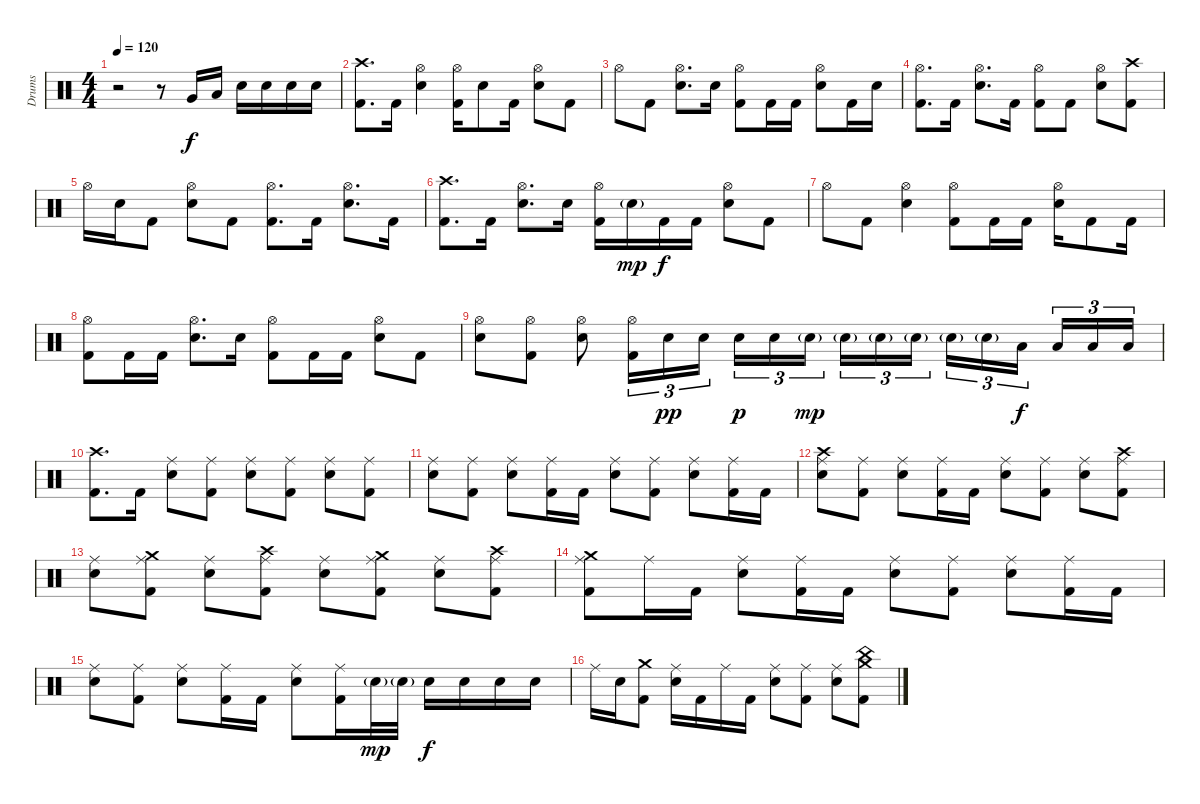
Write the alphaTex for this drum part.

\track ("Drums" "Drums") {instrument percussion}
\staff {score}
\articulation defaults
\ts (4 4)
\tempo 120
\clef neutral
\ks c
r.2{dy f} r.8 "Very Low Tom (hit)".16 "Low Floor Tom (hit)".16 "Electric Snare (hit)".16 "Electric Snare (hit)".16 "Electric Snare (hit)".16 "Electric Snare (hit)".16 |
("Crash high (hit)" "Kick (hit) 2").8{d} "Kick (hit) 2".16 ("Hi-Hat (open)" "Electric Snare (hit)").4 ("Hi-Hat (open)" "Kick (hit) 2").16 "Electric Snare (hit)".8 "Kick (hit) 2".16 ("Hi-Hat (open)" "Electric Snare (hit)").8 "Kick (hit) 2".8 |
"Hi-Hat (open)".8 "Kick (hit) 2".8 ("Hi-Hat (open)" "Electric Snare (hit)").8{d} "Electric Snare (hit)".16 ("Hi-Hat (open)" "Kick (hit) 2").8 "Kick (hit) 2".16 "Kick (hit) 2".16 ("Hi-Hat (open)" "Electric Snare (hit)").8 "Kick (hit) 2".16 "Electric Snare (hit)".16 |
("Hi-Hat (open)" "Kick (hit) 2").8{d} "Kick (hit) 2".16 ("Hi-Hat (open)" "Electric Snare (hit)").8{d} "Kick (hit) 2".16 ("Hi-Hat (open)" "Kick (hit) 2").8 "Kick (hit) 2".8 ("Hi-Hat (open)" "Electric Snare (hit)").8 ("Crash high (hit)" "Kick (hit) 2").8 |
"Hi-Hat (open)".16 "Electric Snare (hit)".16 "Kick (hit) 2".8 ("Hi-Hat (open)" "Electric Snare (hit)").8 "Kick (hit) 2".8 ("Hi-Hat (open)" "Kick (hit) 2").8{d} "Kick (hit) 2".16 ("Hi-Hat (open)" "Electric Snare (hit)").8{d} "Kick (hit) 2".16 |
("Crash high (hit)" "Kick (hit) 2").8{d} "Kick (hit) 2".16 ("Hi-Hat (open)" "Electric Snare (hit)").8{d} "Electric Snare (hit)".16 ("Hi-Hat (open)" "Kick (hit) 2").16 "Electric Snare (hit)"{g}.16{dy mp} "Kick (hit) 2".16{dy f} "Kick (hit) 2".16 ("Hi-Hat (open)" "Electric Snare (hit)").8 "Kick (hit) 2".8 |
"Hi-Hat (open)".8 "Kick (hit) 2".8 ("Hi-Hat (open)" "Electric Snare (hit)").4 ("Hi-Hat (open)" "Kick (hit) 2").8 "Kick (hit) 2".16 "Kick (hit) 2".16 ("Hi-Hat (open)" "Electric Snare (hit)").16 "Kick (hit) 2".8 "Kick (hit) 2".16 |
("Hi-Hat (open)" "Kick (hit) 2").8 "Kick (hit) 2".16 "Kick (hit) 2".16 ("Hi-Hat (open)" "Electric Snare (hit)").8{d} "Electric Snare (hit)".16 ("Hi-Hat (open)" "Kick (hit) 2").8 "Kick (hit) 2".16 "Kick (hit) 2".16 ("Hi-Hat (open)" "Electric Snare (hit)").8 "Kick (hit) 2".8 |
("Hi-Hat (open)" "Electric Snare (hit)").8 ("Hi-Hat (open)" "Kick (hit) 2").8 ("Hi-Hat (open)" "Electric Snare (hit)").8 ("Hi-Hat (open)" "Kick (hit) 2").16{tu (3 2)} "Electric Snare (hit)".16{tu (3 2) dy pp} "Electric Snare (hit)".16{tu (3 2)} "Electric Snare (hit)".16{tu (3 2) dy p} "Electric Snare (hit)".16{tu (3 2)} "Electric Snare (hit)"{g}.16{tu (3 2) dy mp beam splitsecondary} "Electric Snare (hit)"{g}.16{tu (3 2)} "Electric Snare (hit)"{g}.16{tu (3 2)} "Electric Snare (hit)"{g}.16{tu (3 2)} "Electric Snare (hit)"{g}.16{tu (3 2)} "Electric Snare (hit)"{g}.16{tu (3 2)} "Low Floor Tom (hit)".16{tu (3 2) dy f beam splitsecondary} "Low Floor Tom (hit)".16{tu (3 2)} "Low Floor Tom (hit)".16{tu (3 2)} "Low Floor Tom (hit)".16{tu (3 2)} |
("Crash high (hit)" "Kick (hit) 2").8{d} "Kick (hit) 2".16 ("Ride (middle)" "Electric Snare (hit)").8 ("Ride (middle)" "Kick (hit) 2").8 ("Ride (middle)" "Electric Snare (hit)").8 ("Ride (middle)" "Kick (hit) 2").8 ("Ride (middle)" "Electric Snare (hit)").8 ("Ride (middle)" "Kick (hit) 2").8 |
("Ride (middle)" "Electric Snare (hit)").8 ("Ride (middle)" "Kick (hit) 2").8 ("Ride (middle)" "Electric Snare (hit)").8 ("Ride (middle)" "Kick (hit) 2").16 "Kick (hit) 2".16 ("Ride (middle)" "Electric Snare (hit)").8 ("Ride (middle)" "Kick (hit) 2").8 ("Ride (middle)" "Electric Snare (hit)").8 ("Ride (middle)" "Kick (hit) 2").16 "Kick (hit) 2".16 |
("Crash high (hit)" "Ride (middle)" "Electric Snare (hit)").8 ("Ride (middle)" "Kick (hit) 2").8 ("Ride (middle)" "Electric Snare (hit)").8 ("Ride (middle)" "Kick (hit) 2").16 "Kick (hit) 2".16 ("Ride (middle)" "Electric Snare (hit)").8 ("Ride (middle)" "Kick (hit) 2").8 ("Ride (middle)" "Electric Snare (hit)").8 ("Crash high (hit)" "Ride (middle)" "Kick (hit) 2").8 |
("Ride (middle)" "Electric Snare (hit)").8 ("Crash medium (hit)" "Ride (middle)" "Kick (hit) 2").8 ("Ride (middle)" "Electric Snare (hit)").8 ("Crash high (hit)" "Ride (middle)" "Kick (hit) 2").8 ("Ride (middle)" "Electric Snare (hit)").8 ("Crash medium (hit)" "Ride (middle)" "Kick (hit) 2").8 ("Ride (middle)" "Electric Snare (hit)").8 ("Crash high (hit)" "Ride (middle)" "Kick (hit) 2").8 |
("Crash medium (hit)" "Ride (middle)" "Kick (hit) 2").8 "Ride (middle)".16 "Kick (hit) 2".16 ("Ride (middle)" "Electric Snare (hit)").8 ("Ride (middle)" "Kick (hit) 2").16 "Kick (hit) 2".16 ("Ride (middle)" "Electric Snare (hit)").8 ("Ride (middle)" "Kick (hit) 2").8 ("Ride (middle)" "Electric Snare (hit)").8 ("Ride (middle)" "Kick (hit) 2").16 "Kick (hit) 2".16 |
("Ride (middle)" "Electric Snare (hit)").8 ("Ride (middle)" "Kick (hit) 2").8 ("Ride (middle)" "Electric Snare (hit)").8 ("Ride (middle)" "Kick (hit) 2").16 "Kick (hit) 2".16 ("Ride (middle)" "Electric Snare (hit)").8 ("Ride (middle)" "Kick (hit) 2").16 "Electric Snare (hit)"{g}.32{dy mp} "Electric Snare (hit)"{g}.32 "Electric Snare (hit)".16{dy f} "Electric Snare (hit)".16 "Electric Snare (hit)".16 "Electric Snare (hit)".16 |
"Ride (middle)".16 "Electric Snare (hit)".16 ("Crash medium (hit)" "Kick (hit) 2").8 ("Ride (middle)" "Electric Snare (hit)").16 "Kick (hit) 2".16 "Ride (middle)".16 "Kick (hit) 2".16 ("Ride (middle)" "Electric Snare (hit)").8 ("Ride (middle)" "Kick (hit) 2").8 ("Ride (middle)" "Electric Snare (hit)").8 ("Crash medium (hit)" "China (hit)" "Kick (hit) 2").8
